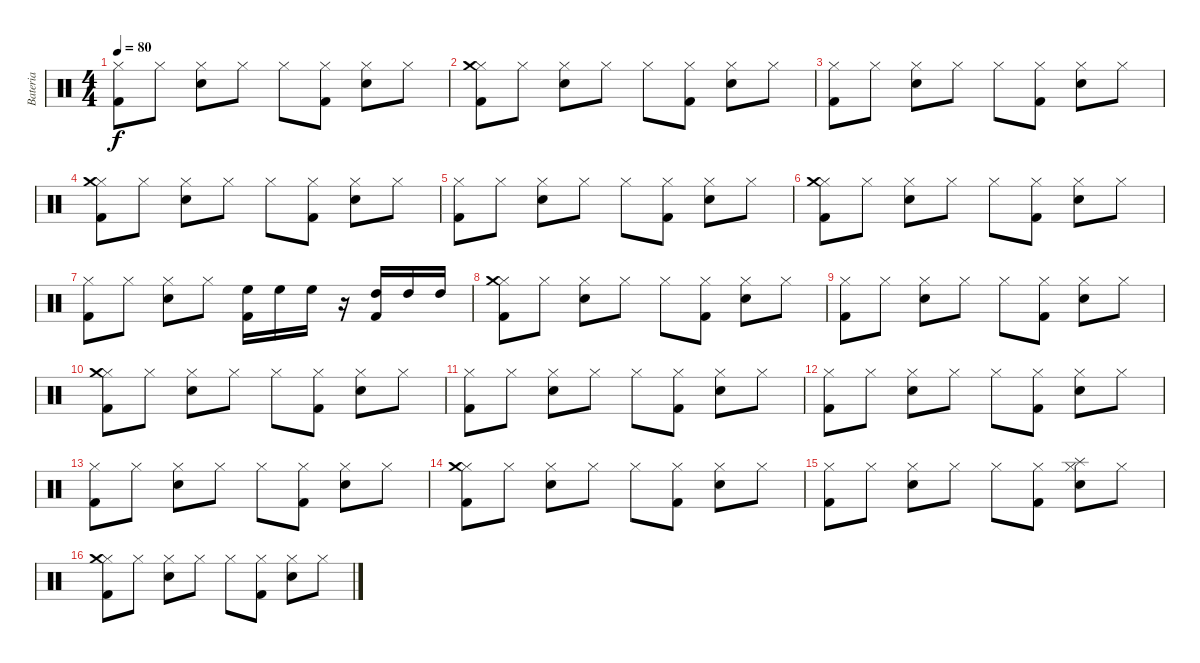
\track ("Bateria" "Bateria") {instrument percussion}
\staff {score}
\articulation defaults
\ts (4 4)
\tempo 80
\clef neutral
\ks c
("Hi-Hat (closed)" "Kick (hit) 2").8{dy f} "Hi-Hat (closed)".8 ("Hi-Hat (closed)" "Snare (hit) 2").8 "Hi-Hat (closed)".8 "Hi-Hat (closed)".8 ("Hi-Hat (closed)" "Kick (hit) 2").8 ("Hi-Hat (closed)" "Snare (hit) 2").8 "Hi-Hat (closed)".8 |
("Hi-Hat (closed)" "Kick (hit) 2" "Crash medium (hit)").8 "Hi-Hat (closed)".8 ("Hi-Hat (closed)" "Snare (hit) 2").8 "Hi-Hat (closed)".8 "Hi-Hat (closed)".8 ("Hi-Hat (closed)" "Kick (hit) 2").8 ("Hi-Hat (closed)" "Snare (hit) 2").8 "Hi-Hat (closed)".8 |
("Hi-Hat (closed)" "Kick (hit) 2").8 "Hi-Hat (closed)".8 ("Hi-Hat (closed)" "Snare (hit) 2").8 "Hi-Hat (closed)".8 "Hi-Hat (closed)".8 ("Hi-Hat (closed)" "Kick (hit) 2").8 ("Hi-Hat (closed)" "Snare (hit) 2").8 "Hi-Hat (closed)".8 |
("Hi-Hat (closed)" "Kick (hit) 2" "Crash medium (hit)").8 "Hi-Hat (closed)".8 ("Hi-Hat (closed)" "Snare (hit) 2").8 "Hi-Hat (closed)".8 "Hi-Hat (closed)".8 ("Hi-Hat (closed)" "Kick (hit) 2").8 ("Hi-Hat (closed)" "Snare (hit) 2").8 "Hi-Hat (closed)".8 |
("Hi-Hat (closed)" "Kick (hit) 2").8 "Hi-Hat (closed)".8 ("Hi-Hat (closed)" "Snare (hit) 2").8 "Hi-Hat (closed)".8 "Hi-Hat (closed)".8 ("Hi-Hat (closed)" "Kick (hit) 2").8 ("Hi-Hat (closed)" "Snare (hit) 2").8 "Hi-Hat (closed)".8 |
("Hi-Hat (closed)" "Kick (hit) 2" "Crash medium (hit)").8 "Hi-Hat (closed)".8 ("Hi-Hat (closed)" "Snare (hit) 2").8 "Hi-Hat (closed)".8 "Hi-Hat (closed)".8 ("Hi-Hat (closed)" "Kick (hit) 2").8 ("Hi-Hat (closed)" "Snare (hit) 2").8 "Hi-Hat (closed)".8 |
("Hi-Hat (closed)" "Kick (hit) 2").8 "Hi-Hat (closed)".8 ("Hi-Hat (closed)" "Snare (hit) 2").8 "Hi-Hat (closed)".8 ("High Floor Tom (hit)" "Kick (hit) 2").16 "High Floor Tom (hit)".16 "High Floor Tom (hit)".16 r.16 ("High Tom (hit)" "Kick (hit) 2").16 "High Tom (hit)".16 "High Tom (hit)".16 |
("Hi-Hat (closed)" "Kick (hit) 2" "Crash medium (hit)").8 "Hi-Hat (closed)".8 ("Hi-Hat (closed)" "Snare (hit) 2").8 "Hi-Hat (closed)".8 "Hi-Hat (closed)".8 ("Hi-Hat (closed)" "Kick (hit) 2").8 ("Hi-Hat (closed)" "Snare (hit) 2").8 "Hi-Hat (closed)".8 |
("Hi-Hat (closed)" "Kick (hit) 2").8 "Hi-Hat (closed)".8 ("Hi-Hat (closed)" "Snare (hit) 2").8 "Hi-Hat (closed)".8 "Hi-Hat (closed)".8 ("Hi-Hat (closed)" "Kick (hit) 2").8 ("Hi-Hat (closed)" "Snare (hit) 2").8 "Hi-Hat (closed)".8 |
("Hi-Hat (closed)" "Kick (hit) 2" "Crash medium (hit)").8 "Hi-Hat (closed)".8 ("Hi-Hat (closed)" "Snare (hit) 2").8 "Hi-Hat (closed)".8 "Hi-Hat (closed)".8 ("Hi-Hat (closed)" "Kick (hit) 2").8 ("Hi-Hat (closed)" "Snare (hit) 2").8 "Hi-Hat (closed)".8 |
("Hi-Hat (closed)" "Kick (hit) 2").8 "Hi-Hat (closed)".8 ("Hi-Hat (closed)" "Snare (hit) 2").8 "Hi-Hat (closed)".8 "Hi-Hat (closed)".8 ("Hi-Hat (closed)" "Kick (hit) 2").8 ("Hi-Hat (closed)" "Snare (hit) 2").8 "Hi-Hat (closed)".8 |
("Hi-Hat (closed)" "Kick (hit) 2").8 "Hi-Hat (closed)".8 ("Hi-Hat (closed)" "Snare (hit) 2").8 "Hi-Hat (closed)".8 "Hi-Hat (closed)".8 ("Hi-Hat (closed)" "Kick (hit) 2").8 ("Hi-Hat (closed)" "Snare (hit) 2").8 "Hi-Hat (closed)".8 |
("Hi-Hat (closed)" "Kick (hit) 2").8 "Hi-Hat (closed)".8 ("Hi-Hat (closed)" "Snare (hit) 2").8 "Hi-Hat (closed)".8 "Hi-Hat (closed)".8 ("Hi-Hat (closed)" "Kick (hit) 2").8 ("Hi-Hat (closed)" "Snare (hit) 2").8 "Hi-Hat (closed)".8 |
("Hi-Hat (closed)" "Kick (hit) 2" "Crash medium (hit)").8 "Hi-Hat (closed)".8 ("Hi-Hat (closed)" "Snare (hit) 2").8 "Hi-Hat (closed)".8 "Hi-Hat (closed)".8 ("Hi-Hat (closed)" "Kick (hit) 2").8 ("Hi-Hat (closed)" "Snare (hit) 2").8 "Hi-Hat (closed)".8 |
("Hi-Hat (closed)" "Kick (hit) 2").8 "Hi-Hat (closed)".8 ("Hi-Hat (closed)" "Snare (hit) 2").8 "Hi-Hat (closed)".8 "Hi-Hat (closed)".8 ("Hi-Hat (closed)" "Kick (hit) 2").8 ("Hi-Hat (closed)" "Snare (hit) 2" "Splash (hit)").8 "Hi-Hat (closed)".8 |
("Hi-Hat (closed)" "Kick (hit) 2" "Crash medium (hit)").8 "Hi-Hat (closed)".8 ("Hi-Hat (closed)" "Snare (hit) 2").8 "Hi-Hat (closed)".8 "Hi-Hat (closed)".8 ("Hi-Hat (closed)" "Kick (hit) 2").8 ("Hi-Hat (closed)" "Snare (hit) 2").8 "Hi-Hat (closed)".8
